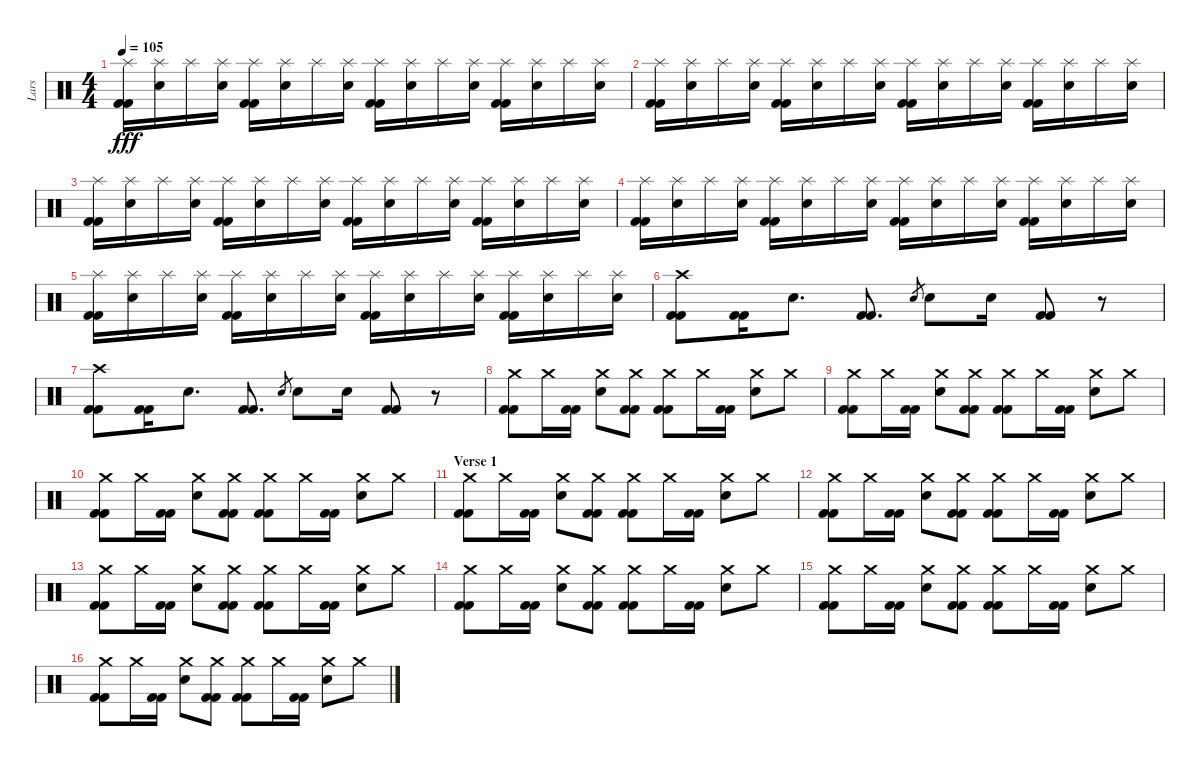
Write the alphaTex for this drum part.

\track ("Lars" "Lars") {instrument percussion}
\staff {score}
\articulation defaults
\ts (4 4)
\tempo 105
\clef neutral
\ks c
("Splash (hit)" "Kick (hit) 2" "Kick (hit) 2").16{dy fff} ("Splash (hit)" "Electric Snare (hit)").16 "Splash (hit)".16 ("Splash (hit)" "Electric Snare (hit)").16 ("Splash (hit)" "Kick (hit) 2" "Kick (hit) 2").16 ("Splash (hit)" "Electric Snare (hit)").16 "Splash (hit)".16 ("Splash (hit)" "Electric Snare (hit)").16 ("Splash (hit)" "Kick (hit) 2" "Kick (hit) 2").16 ("Splash (hit)" "Electric Snare (hit)").16 "Splash (hit)".16 ("Splash (hit)" "Electric Snare (hit)").16 ("Splash (hit)" "Kick (hit) 2" "Kick (hit) 2").16 ("Splash (hit)" "Electric Snare (hit)").16 "Splash (hit)".16 ("Splash (hit)" "Electric Snare (hit)").16 |
("Splash (hit)" "Kick (hit) 2" "Kick (hit) 2").16 ("Splash (hit)" "Electric Snare (hit)").16 "Splash (hit)".16 ("Splash (hit)" "Electric Snare (hit)").16 ("Splash (hit)" "Kick (hit) 2" "Kick (hit) 2").16 ("Splash (hit)" "Electric Snare (hit)").16 "Splash (hit)".16 ("Splash (hit)" "Electric Snare (hit)").16 ("Splash (hit)" "Kick (hit) 2" "Kick (hit) 2").16 ("Splash (hit)" "Electric Snare (hit)").16 "Splash (hit)".16 ("Splash (hit)" "Electric Snare (hit)").16 ("Splash (hit)" "Kick (hit) 2" "Kick (hit) 2").16 ("Splash (hit)" "Electric Snare (hit)").16 "Splash (hit)".16 ("Splash (hit)" "Electric Snare (hit)").16 |
("Splash (hit)" "Kick (hit) 2" "Kick (hit) 2").16 ("Splash (hit)" "Electric Snare (hit)").16 "Splash (hit)".16 ("Splash (hit)" "Electric Snare (hit)").16 ("Splash (hit)" "Kick (hit) 2" "Kick (hit) 2").16 ("Splash (hit)" "Electric Snare (hit)").16 "Splash (hit)".16 ("Splash (hit)" "Electric Snare (hit)").16 ("Splash (hit)" "Kick (hit) 2" "Kick (hit) 2").16 ("Splash (hit)" "Electric Snare (hit)").16 "Splash (hit)".16 ("Splash (hit)" "Electric Snare (hit)").16 ("Splash (hit)" "Kick (hit) 2" "Kick (hit) 2").16 ("Splash (hit)" "Electric Snare (hit)").16 "Splash (hit)".16 ("Splash (hit)" "Electric Snare (hit)").16 |
("Splash (hit)" "Kick (hit) 2" "Kick (hit) 2").16 ("Splash (hit)" "Electric Snare (hit)").16 "Splash (hit)".16 ("Splash (hit)" "Electric Snare (hit)").16 ("Splash (hit)" "Kick (hit) 2" "Kick (hit) 2").16 ("Splash (hit)" "Electric Snare (hit)").16 "Splash (hit)".16 ("Splash (hit)" "Electric Snare (hit)").16 ("Splash (hit)" "Kick (hit) 2" "Kick (hit) 2").16 ("Splash (hit)" "Electric Snare (hit)").16 "Splash (hit)".16 ("Splash (hit)" "Electric Snare (hit)").16 ("Splash (hit)" "Kick (hit) 2" "Kick (hit) 2").16 ("Splash (hit)" "Electric Snare (hit)").16 "Splash (hit)".16 ("Splash (hit)" "Electric Snare (hit)").16 |
("Splash (hit)" "Kick (hit) 2" "Kick (hit) 2").16 ("Splash (hit)" "Electric Snare (hit)").16 "Splash (hit)".16 ("Splash (hit)" "Electric Snare (hit)").16 ("Splash (hit)" "Kick (hit) 2" "Kick (hit) 2").16 ("Splash (hit)" "Electric Snare (hit)").16 "Splash (hit)".16 ("Splash (hit)" "Electric Snare (hit)").16 ("Splash (hit)" "Kick (hit) 2" "Kick (hit) 2").16 ("Splash (hit)" "Electric Snare (hit)").16 "Splash (hit)".16 ("Splash (hit)" "Electric Snare (hit)").16 ("Splash (hit)" "Kick (hit) 2" "Kick (hit) 2").16 ("Splash (hit)" "Electric Snare (hit)").16 "Splash (hit)".16 ("Splash (hit)" "Electric Snare (hit)").16 |
("Crash high (hit)" "Kick (hit) 2" "Kick (hit) 2").8 ("Kick (hit) 2" "Kick (hit) 2").16 "Electric Snare (hit)".8{d} ("Kick (hit) 2" "Kick (hit) 2").8{d} "Electric Snare (hit)".8{gr} "Electric Snare (hit)".8 "Electric Snare (hit)".16 ("Kick (hit) 2" "Kick (hit) 2").8 r.8 |
("Crash high (hit)" "Kick (hit) 2" "Kick (hit) 2").8 ("Kick (hit) 2" "Kick (hit) 2").16 "Electric Snare (hit)".8{d} ("Kick (hit) 2" "Kick (hit) 2").8{d} "Electric Snare (hit)".8{gr} "Electric Snare (hit)".8 "Electric Snare (hit)".16 ("Kick (hit) 2" "Kick (hit) 2").8 r.8 |
("Crash medium (hit)" "Kick (hit) 2" "Kick (hit) 2").8 "Crash medium (hit)".16 ("Kick (hit) 2" "Kick (hit) 2").16 ("Crash medium (hit)" "Electric Snare (hit)").8 ("Crash medium (hit)" "Kick (hit) 2" "Kick (hit) 2").8 ("Crash medium (hit)" "Kick (hit) 2" "Kick (hit) 2").8 "Crash medium (hit)".16 ("Kick (hit) 2" "Kick (hit) 2").16 ("Crash medium (hit)" "Electric Snare (hit)").8 "Crash medium (hit)".8 |
("Crash medium (hit)" "Kick (hit) 2" "Kick (hit) 2").8 "Crash medium (hit)".16 ("Kick (hit) 2" "Kick (hit) 2").16 ("Crash medium (hit)" "Electric Snare (hit)").8 ("Crash medium (hit)" "Kick (hit) 2" "Kick (hit) 2").8 ("Crash medium (hit)" "Kick (hit) 2" "Kick (hit) 2").8 "Crash medium (hit)".16 ("Kick (hit) 2" "Kick (hit) 2").16 ("Crash medium (hit)" "Electric Snare (hit)").8 "Crash medium (hit)".8 |
("Crash medium (hit)" "Kick (hit) 2" "Kick (hit) 2").8 "Crash medium (hit)".16 ("Kick (hit) 2" "Kick (hit) 2").16 ("Crash medium (hit)" "Electric Snare (hit)").8 ("Crash medium (hit)" "Kick (hit) 2" "Kick (hit) 2").8 ("Crash medium (hit)" "Kick (hit) 2" "Kick (hit) 2").8 "Crash medium (hit)".16 ("Kick (hit) 2" "Kick (hit) 2").16 ("Crash medium (hit)" "Electric Snare (hit)").8 "Crash medium (hit)".8 |
\section ("" "Verse 1")
("Crash medium (hit)" "Kick (hit) 2" "Kick (hit) 2").8 "Crash medium (hit)".16 ("Kick (hit) 2" "Kick (hit) 2").16 ("Crash medium (hit)" "Electric Snare (hit)").8 ("Crash medium (hit)" "Kick (hit) 2" "Kick (hit) 2").8 ("Crash medium (hit)" "Kick (hit) 2" "Kick (hit) 2").8 "Crash medium (hit)".16 ("Kick (hit) 2" "Kick (hit) 2").16 ("Crash medium (hit)" "Electric Snare (hit)").8 "Crash medium (hit)".8 |
("Crash medium (hit)" "Kick (hit) 2" "Kick (hit) 2").8 "Crash medium (hit)".16 ("Kick (hit) 2" "Kick (hit) 2").16 ("Crash medium (hit)" "Electric Snare (hit)").8 ("Crash medium (hit)" "Kick (hit) 2" "Kick (hit) 2").8 ("Crash medium (hit)" "Kick (hit) 2" "Kick (hit) 2").8 "Crash medium (hit)".16 ("Kick (hit) 2" "Kick (hit) 2").16 ("Crash medium (hit)" "Electric Snare (hit)").8 "Crash medium (hit)".8 |
("Crash medium (hit)" "Kick (hit) 2" "Kick (hit) 2").8 "Crash medium (hit)".16 ("Kick (hit) 2" "Kick (hit) 2").16 ("Crash medium (hit)" "Electric Snare (hit)").8 ("Crash medium (hit)" "Kick (hit) 2" "Kick (hit) 2").8 ("Crash medium (hit)" "Kick (hit) 2" "Kick (hit) 2").8 "Crash medium (hit)".16 ("Kick (hit) 2" "Kick (hit) 2").16 ("Crash medium (hit)" "Electric Snare (hit)").8 "Crash medium (hit)".8 |
("Crash medium (hit)" "Kick (hit) 2" "Kick (hit) 2").8 "Crash medium (hit)".16 ("Kick (hit) 2" "Kick (hit) 2").16 ("Crash medium (hit)" "Electric Snare (hit)").8 ("Crash medium (hit)" "Kick (hit) 2" "Kick (hit) 2").8 ("Crash medium (hit)" "Kick (hit) 2" "Kick (hit) 2").8 "Crash medium (hit)".16 ("Kick (hit) 2" "Kick (hit) 2").16 ("Crash medium (hit)" "Electric Snare (hit)").8 "Crash medium (hit)".8 |
("Crash medium (hit)" "Kick (hit) 2" "Kick (hit) 2").8 "Crash medium (hit)".16 ("Kick (hit) 2" "Kick (hit) 2").16 ("Crash medium (hit)" "Electric Snare (hit)").8 ("Crash medium (hit)" "Kick (hit) 2" "Kick (hit) 2").8 ("Crash medium (hit)" "Kick (hit) 2" "Kick (hit) 2").8 "Crash medium (hit)".16 ("Kick (hit) 2" "Kick (hit) 2").16 ("Crash medium (hit)" "Electric Snare (hit)").8 "Crash medium (hit)".8 |
("Crash medium (hit)" "Kick (hit) 2" "Kick (hit) 2").8 "Crash medium (hit)".16 ("Kick (hit) 2" "Kick (hit) 2").16 ("Crash medium (hit)" "Electric Snare (hit)").8 ("Crash medium (hit)" "Kick (hit) 2" "Kick (hit) 2").8 ("Crash medium (hit)" "Kick (hit) 2" "Kick (hit) 2").8 "Crash medium (hit)".16 ("Kick (hit) 2" "Kick (hit) 2").16 ("Crash medium (hit)" "Electric Snare (hit)").8 "Crash medium (hit)".8
